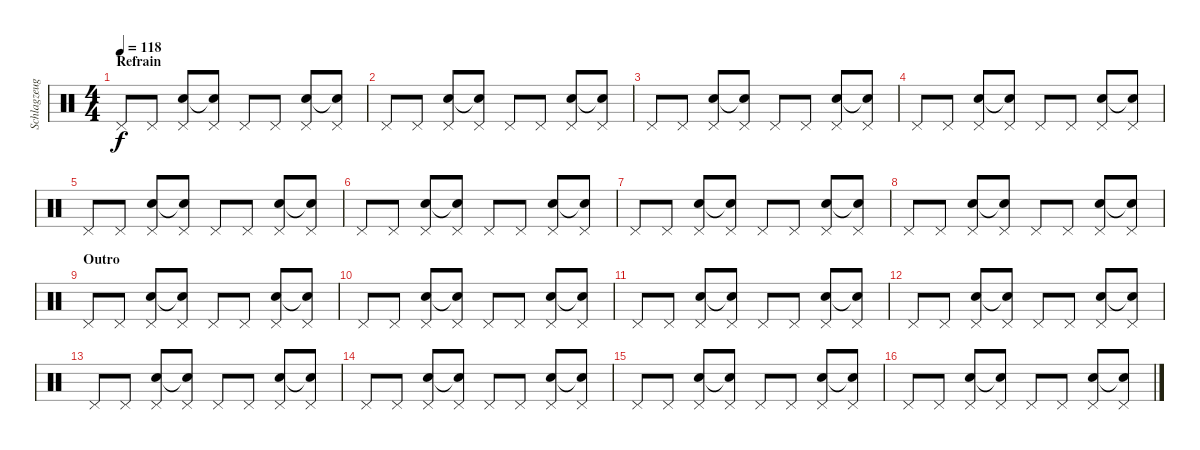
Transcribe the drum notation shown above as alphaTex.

\track ("Schlagzeug" "Schlagzeug") {instrument percussion}
\staff {score}
\articulation defaults
\ts (4 4)
\section ("" "Refrain")
\tempo 118
\clef neutral
\ks c "Pedal Hi-Hat (hit)".8{dy f} "Pedal Hi-Hat (hit)".8
("Pedal Hi-Hat (hit)" "Snare (hit) 2").8 ("Pedal Hi-Hat (hit)" "Snare (hit) 2"{t}).8 "Pedal Hi-Hat (hit)".8 "Pedal Hi-Hat (hit)".8 ("Pedal Hi-Hat (hit)" "Snare (hit) 2").8 ("Pedal Hi-Hat (hit)" "Snare (hit)"{t}).8 |
"Pedal Hi-Hat (hit)".8 "Pedal Hi-Hat (hit)".8 ("Pedal Hi-Hat (hit)" "Snare (hit) 2").8 ("Pedal Hi-Hat (hit)" "Snare (hit) 2"{t}).8 "Pedal Hi-Hat (hit)".8 "Pedal Hi-Hat (hit)".8 ("Pedal Hi-Hat (hit)" "Snare (hit) 2").8 ("Pedal Hi-Hat (hit)" "Snare (hit)"{t}).8 |
"Pedal Hi-Hat (hit)".8 "Pedal Hi-Hat (hit)".8 ("Pedal Hi-Hat (hit)" "Snare (hit) 2").8 ("Pedal Hi-Hat (hit)" "Snare (hit) 2"{t}).8 "Pedal Hi-Hat (hit)".8 "Pedal Hi-Hat (hit)".8 ("Pedal Hi-Hat (hit)" "Snare (hit) 2").8 ("Pedal Hi-Hat (hit)" "Snare (hit)"{t}).8 |
"Pedal Hi-Hat (hit)".8 "Pedal Hi-Hat (hit)".8 ("Pedal Hi-Hat (hit)" "Snare (hit) 2").8 ("Pedal Hi-Hat (hit)" "Snare (hit) 2"{t}).8 "Pedal Hi-Hat (hit)".8 "Pedal Hi-Hat (hit)".8 ("Pedal Hi-Hat (hit)" "Snare (hit) 2").8 ("Pedal Hi-Hat (hit)" "Snare (hit)"{t}).8 |
"Pedal Hi-Hat (hit)".8 "Pedal Hi-Hat (hit)".8 ("Pedal Hi-Hat (hit)" "Snare (hit) 2").8 ("Pedal Hi-Hat (hit)" "Snare (hit) 2"{t}).8 "Pedal Hi-Hat (hit)".8 "Pedal Hi-Hat (hit)".8 ("Pedal Hi-Hat (hit)" "Snare (hit) 2").8 ("Pedal Hi-Hat (hit)" "Snare (hit)"{t}).8 |
"Pedal Hi-Hat (hit)".8 "Pedal Hi-Hat (hit)".8 ("Pedal Hi-Hat (hit)" "Snare (hit) 2").8 ("Pedal Hi-Hat (hit)" "Snare (hit) 2"{t}).8 "Pedal Hi-Hat (hit)".8 "Pedal Hi-Hat (hit)".8 ("Pedal Hi-Hat (hit)" "Snare (hit) 2").8 ("Pedal Hi-Hat (hit)" "Snare (hit)"{t}).8 |
"Pedal Hi-Hat (hit)".8 "Pedal Hi-Hat (hit)".8 ("Pedal Hi-Hat (hit)" "Snare (hit) 2").8 ("Pedal Hi-Hat (hit)" "Snare (hit) 2"{t}).8 "Pedal Hi-Hat (hit)".8 "Pedal Hi-Hat (hit)".8 ("Pedal Hi-Hat (hit)" "Snare (hit) 2").8 ("Pedal Hi-Hat (hit)" "Snare (hit)"{t}).8 |
"Pedal Hi-Hat (hit)".8 "Pedal Hi-Hat (hit)".8 ("Pedal Hi-Hat (hit)" "Snare (hit) 2").8 ("Pedal Hi-Hat (hit)" "Snare (hit) 2"{t}).8 "Pedal Hi-Hat (hit)".8 "Pedal Hi-Hat (hit)".8 ("Pedal Hi-Hat (hit)" "Snare (hit) 2").8 ("Pedal Hi-Hat (hit)" "Snare (hit)"{t}).8 |
\section ("" "Outro")
"Pedal Hi-Hat (hit)".8 "Pedal Hi-Hat (hit)".8 ("Pedal Hi-Hat (hit)" "Snare (hit) 2").8 ("Pedal Hi-Hat (hit)" "Snare (hit) 2"{t}).8 "Pedal Hi-Hat (hit)".8 "Pedal Hi-Hat (hit)".8 ("Pedal Hi-Hat (hit)" "Snare (hit) 2").8 ("Pedal Hi-Hat (hit)" "Snare (hit)"{t}).8 |
"Pedal Hi-Hat (hit)".8 "Pedal Hi-Hat (hit)".8 ("Pedal Hi-Hat (hit)" "Snare (hit) 2").8 ("Pedal Hi-Hat (hit)" "Snare (hit) 2"{t}).8 "Pedal Hi-Hat (hit)".8 "Pedal Hi-Hat (hit)".8 ("Pedal Hi-Hat (hit)" "Snare (hit) 2").8 ("Pedal Hi-Hat (hit)" "Snare (hit)"{t}).8 |
"Pedal Hi-Hat (hit)".8 "Pedal Hi-Hat (hit)".8 ("Pedal Hi-Hat (hit)" "Snare (hit) 2").8 ("Pedal Hi-Hat (hit)" "Snare (hit) 2"{t}).8 "Pedal Hi-Hat (hit)".8 "Pedal Hi-Hat (hit)".8 ("Pedal Hi-Hat (hit)" "Snare (hit) 2").8 ("Pedal Hi-Hat (hit)" "Snare (hit)"{t}).8 |
"Pedal Hi-Hat (hit)".8 "Pedal Hi-Hat (hit)".8 ("Pedal Hi-Hat (hit)" "Snare (hit) 2").8 ("Pedal Hi-Hat (hit)" "Snare (hit) 2"{t}).8 "Pedal Hi-Hat (hit)".8 "Pedal Hi-Hat (hit)".8 ("Pedal Hi-Hat (hit)" "Snare (hit) 2").8 ("Pedal Hi-Hat (hit)" "Snare (hit)"{t}).8 |
"Pedal Hi-Hat (hit)".8 "Pedal Hi-Hat (hit)".8 ("Pedal Hi-Hat (hit)" "Snare (hit) 2").8 ("Pedal Hi-Hat (hit)" "Snare (hit) 2"{t}).8 "Pedal Hi-Hat (hit)".8 "Pedal Hi-Hat (hit)".8 ("Pedal Hi-Hat (hit)" "Snare (hit) 2").8 ("Pedal Hi-Hat (hit)" "Snare (hit)"{t}).8 |
"Pedal Hi-Hat (hit)".8 "Pedal Hi-Hat (hit)".8 ("Pedal Hi-Hat (hit)" "Snare (hit) 2").8 ("Pedal Hi-Hat (hit)" "Snare (hit) 2"{t}).8 "Pedal Hi-Hat (hit)".8 "Pedal Hi-Hat (hit)".8 ("Pedal Hi-Hat (hit)" "Snare (hit) 2").8 ("Pedal Hi-Hat (hit)" "Snare (hit)"{t}).8 |
"Pedal Hi-Hat (hit)".8 "Pedal Hi-Hat (hit)".8 ("Pedal Hi-Hat (hit)" "Snare (hit) 2").8 ("Pedal Hi-Hat (hit)" "Snare (hit) 2"{t}).8 "Pedal Hi-Hat (hit)".8 "Pedal Hi-Hat (hit)".8 ("Pedal Hi-Hat (hit)" "Snare (hit) 2").8 ("Pedal Hi-Hat (hit)" "Snare (hit)"{t}).8 |
"Pedal Hi-Hat (hit)".8 "Pedal Hi-Hat (hit)".8 ("Pedal Hi-Hat (hit)" "Snare (hit) 2").8 ("Pedal Hi-Hat (hit)" "Snare (hit) 2"{t}).8 "Pedal Hi-Hat (hit)".8 "Pedal Hi-Hat (hit)".8 ("Pedal Hi-Hat (hit)" "Snare (hit) 2").8 ("Pedal Hi-Hat (hit)" "Snare (hit)"{t}).8
